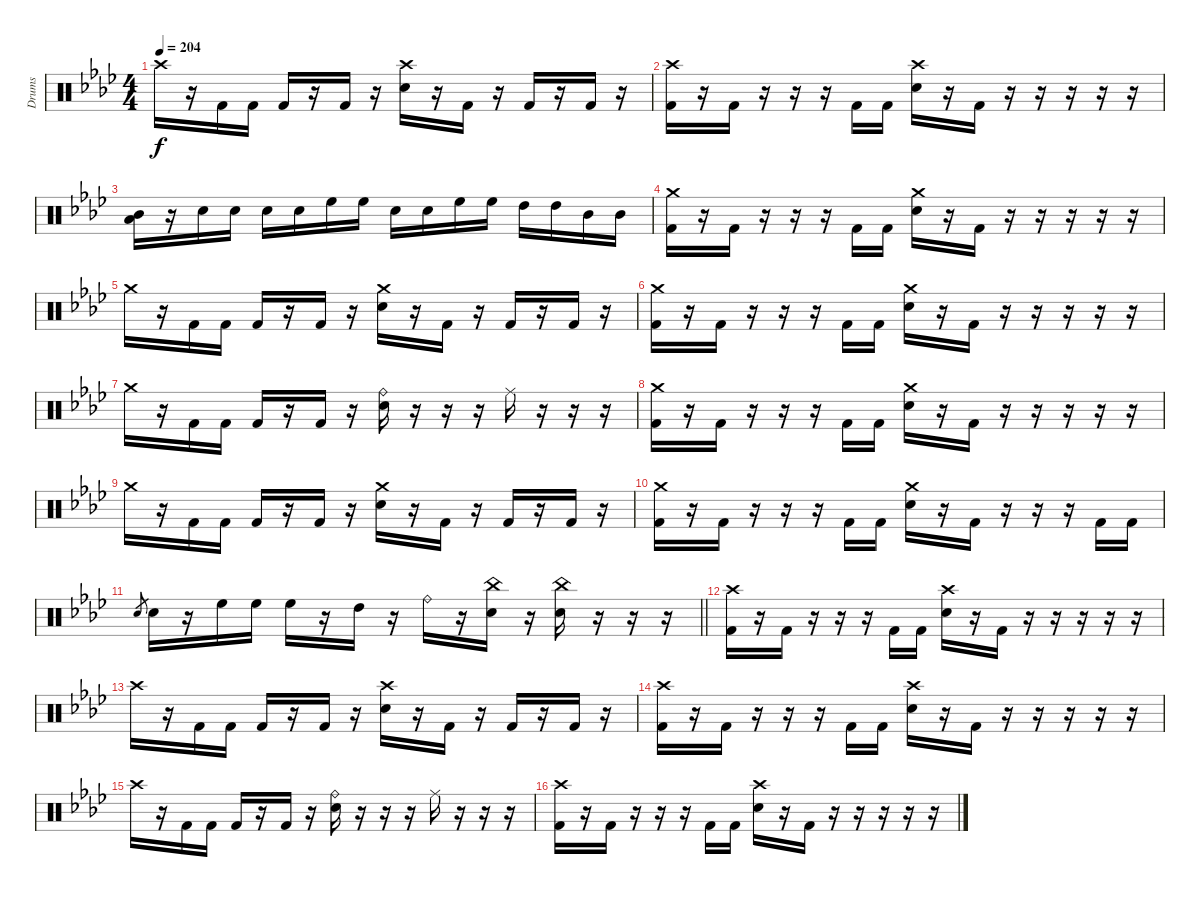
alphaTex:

\bracketExtendMode groupsimilarinstruments
\otherSystemsTrackNameOrientation horizontal
\track ("Guyot Begin-Benoit" "Drums") {instrument percussion}
\staff {score}
\articulation defaults
\ts (4 4)
\tempo 204
\clef neutral
\ks ab "Crash high (hit)"{acc forcenatural}.16{dy f beam Down}
r.16{beam Down} "Kick (hit) 2"{acc forcenatural}.16{beam Down} "Kick (hit) 2"{acc forcenatural}.16{beam Down} "Kick (hit) 2"{acc forcenatural}.16{beam Up} r.16{beam Up} "Kick (hit) 2"{acc forcenatural}.16{beam Up} r.16{beam Up} ("Crash high (hit)"{acc forcenatural} "Snare (hit) 2"{acc forcenatural}).16{beam Down} r.16{beam Down} "Kick (hit) 2"{acc forcenatural}.16{beam Down} r.16{beam Down} "Kick (hit) 2"{acc forcenatural}.16{beam Up} r.16{beam Up} "Kick (hit) 2"{acc forcenatural}.16{beam Up} r.16{beam Up} |
("Crash high (hit)"{acc forcenatural} "Kick (hit) 2"{acc forcenatural}).16{beam Down} r.16{beam Down} "Kick (hit) 2"{acc forcenatural}.16{beam Down} r.16{beam Down} r.16{beam Down} r.16{beam Down} "Kick (hit) 2"{acc forcenatural}.16{beam Up} "Kick (hit) 2"{acc forcenatural}.16{beam Up} ("Crash high (hit)"{acc forcenatural} "Snare (hit) 2"{acc forcenatural}).16{beam Down} r.16{beam Down} "Kick (hit) 2"{acc forcenatural}.16{beam Down} r.16{beam Down} r.16{beam Down} r.16{beam Down} r.16{beam Down} r.16{beam Down} |
("Low Tom (hit)"{acc forcenatural} "Mid Tom (hit)"{acc forcenatural}).16{beam Down} r.16{beam Down} "Snare (hit) 2"{acc forcenatural}.16{beam Down} "Snare (hit) 2"{acc forcenatural}.16{beam Down} "Snare (hit) 2"{acc forcenatural}.16{beam Down} "Snare (hit) 2"{acc forcenatural}.16{beam Down} "High Floor Tom (hit)"{acc forcenatural}.16{beam Down} "High Floor Tom (hit)"{acc forcenatural}.16{beam Down} "Snare (hit) 2"{acc forcenatural}.16{beam Down} "Snare (hit) 2"{acc forcenatural}.16{beam Down} "High Floor Tom (hit)"{acc forcenatural}.16{beam Down} "High Floor Tom (hit)"{acc forcenatural}.16{beam Down} "High Tom (hit)"{acc forcenatural}.16{beam Down} "High Tom (hit)"{acc forcenatural}.16{beam Down} "Mid Tom (hit)"{acc forcenatural}.16{beam Down} "Mid Tom (hit)"{acc forcenatural}.16{beam Down} |
("Crash medium (hit)"{acc forcenatural} "Kick (hit) 2"{acc forcenatural}).16{beam Down} r.16{beam Down} "Kick (hit) 2"{acc forcenatural}.16{beam Down} r.16{beam Down} r.16{beam Down} r.16{beam Down} "Kick (hit) 2"{acc forcenatural}.16{beam Up} "Kick (hit) 2"{acc forcenatural}.16{beam Up} ("Crash medium (hit)"{acc forcenatural} "Snare (hit) 2"{acc forcenatural}).16{beam Down} r.16{beam Down} "Kick (hit) 2"{acc forcenatural}.16{beam Down} r.16{beam Down} r.16{beam Down} r.16{beam Down} r.16{beam Down} r.16{beam Down} |
"Crash medium (hit)"{acc forcenatural}.16{beam Down} r.16{beam Down} "Kick (hit) 2"{acc forcenatural}.16{beam Down} "Kick (hit) 2"{acc forcenatural}.16{beam Down} "Kick (hit) 2"{acc forcenatural}.16{beam Up} r.16{beam Up} "Kick (hit) 2"{acc forcenatural}.16{beam Up} r.16{beam Up} ("Crash medium (hit)"{acc forcenatural} "Snare (hit) 2"{acc forcenatural}).16{beam Down} r.16{beam Down} "Kick (hit) 2"{acc forcenatural}.16{beam Down} r.16{beam Down} "Kick (hit) 2"{acc forcenatural}.16{beam Up} r.16{beam Up} "Kick (hit) 2"{acc forcenatural}.16{beam Up} r.16{beam Up} |
("Crash medium (hit)"{acc forcenatural} "Kick (hit) 2"{acc forcenatural}).16{beam Down} r.16{beam Down} "Kick (hit) 2"{acc forcenatural}.16{beam Down} r.16{beam Down} r.16{beam Down} r.16{beam Down} "Kick (hit) 2"{acc forcenatural}.16{beam Up} "Kick (hit) 2"{acc forcenatural}.16{beam Up} ("Crash medium (hit)"{acc forcenatural} "Snare (hit) 2"{acc forcenatural}).16{beam Down} r.16{beam Down} "Kick (hit) 2"{acc forcenatural}.16{beam Down} r.16{beam Down} r.16{beam Down} r.16{beam Down} r.16{beam Down} r.16{beam Down} |
"Crash medium (hit)"{acc forcenatural}.16{beam Down} r.16{beam Down} "Kick (hit) 2"{acc forcenatural}.16{beam Down} "Kick (hit) 2"{acc forcenatural}.16{beam Down} "Kick (hit) 2"{acc forcenatural}.16{beam Up} r.16{beam Up} "Kick (hit) 2"{acc forcenatural}.16{beam Up} r.16{beam Up} ("Ride (bell)"{acc forcenatural} "Snare (hit) 2"{acc forcenatural}).16{beam Down} r.16{beam Down} r.16{beam Down} r.16{beam Down} "Ride (middle)"{acc forcenatural}.16{beam Down} r.16{beam Down} r.16{beam Down} r.16{beam Down} |
("Crash medium (hit)"{acc forcenatural} "Kick (hit) 2"{acc forcenatural}).16{beam Down} r.16{beam Down} "Kick (hit) 2"{acc forcenatural}.16{beam Down} r.16{beam Down} r.16{beam Down} r.16{beam Down} "Kick (hit) 2"{acc forcenatural}.16{beam Up} "Kick (hit) 2"{acc forcenatural}.16{beam Up} ("Crash medium (hit)"{acc forcenatural} "Snare (hit) 2"{acc forcenatural}).16{beam Down} r.16{beam Down} "Kick (hit) 2"{acc forcenatural}.16{beam Down} r.16{beam Down} r.16{beam Down} r.16{beam Down} r.16{beam Down} r.16{beam Down} |
"Crash medium (hit)"{acc forcenatural}.16{beam Down} r.16{beam Down} "Kick (hit) 2"{acc forcenatural}.16{beam Down} "Kick (hit) 2"{acc forcenatural}.16{beam Down} "Kick (hit) 2"{acc forcenatural}.16{beam Up} r.16{beam Up} "Kick (hit) 2"{acc forcenatural}.16{beam Up} r.16{beam Up} ("Crash medium (hit)"{acc forcenatural} "Snare (hit) 2"{acc forcenatural}).16{beam Down} r.16{beam Down} "Kick (hit) 2"{acc forcenatural}.16{beam Down} r.16{beam Down} "Kick (hit) 2"{acc forcenatural}.16{beam Up} r.16{beam Up} "Kick (hit) 2"{acc forcenatural}.16{beam Up} r.16{beam Up} |
("Crash medium (hit)"{acc forcenatural} "Kick (hit) 2"{acc forcenatural}).16{beam Down} r.16{beam Down} "Kick (hit) 2"{acc forcenatural}.16{beam Down} r.16{beam Down} r.16{beam Down} r.16{beam Down} "Kick (hit) 2"{acc forcenatural}.16{beam Up} "Kick (hit) 2"{acc forcenatural}.16{beam Up} ("Crash medium (hit)"{acc forcenatural} "Snare (hit) 2"{acc forcenatural}).16{beam Down} r.16{beam Down} "Kick (hit) 2"{acc forcenatural}.16{beam Down} r.16{beam Down} r.16{beam Down} r.16{beam Down} "Kick (hit) 2"{acc forcenatural}.16{beam Up} "Kick (hit) 2"{acc forcenatural}.16{beam Up} |
\barLineRight lightlight "Snare (hit) 2"{acc forcenatural}.8{gr beam Up} "Snare (hit) 2"{acc forcenatural}.16{beam Down}
r.16{beam Down} "High Floor Tom (hit)"{acc forcenatural}.16{beam Down} "High Floor Tom (hit)"{acc forcenatural}.16{beam Down} "High Floor Tom (hit)"{acc forcenatural}.16{beam Down} r.16{beam Down} "High Tom (hit)"{acc forcenatural}.16{beam Down} r.16{beam Down} "Ride (bell)"{acc forcenatural}.16{beam Down} r.16{beam Down} ("China (hit)"{acc forcenatural} "Snare (hit) 2"{acc forcenatural}).16{beam Down} r.16{beam Down} ("China (hit)"{acc forcenatural} "Snare (hit) 2"{acc forcenatural}).16{beam Down} r.16{beam Down} r.16{beam Down} r.16{beam Down} |
\section ("" "")
("Crash high (hit)"{acc forcenatural} "Kick (hit) 2"{acc forcenatural}).16{beam Down} r.16{beam Down} "Kick (hit) 2"{acc forcenatural}.16{beam Down} r.16{beam Down} r.16{beam Down} r.16{beam Down} "Kick (hit) 2"{acc forcenatural}.16{beam Up} "Kick (hit) 2"{acc forcenatural}.16{beam Up} ("Crash high (hit)"{acc forcenatural} "Snare (hit) 2"{acc forcenatural}).16{beam Down} r.16{beam Down} "Kick (hit) 2"{acc forcenatural}.16{beam Down} r.16{beam Down} r.16{beam Down} r.16{beam Down} r.16{beam Down} r.16{beam Down} |
"Crash high (hit)"{acc forcenatural}.16{beam Down} r.16{beam Down} "Kick (hit) 2"{acc forcenatural}.16{beam Down} "Kick (hit) 2"{acc forcenatural}.16{beam Down} "Kick (hit) 2"{acc forcenatural}.16{beam Up} r.16{beam Up} "Kick (hit) 2"{acc forcenatural}.16{beam Up} r.16{beam Up} ("Crash high (hit)"{acc forcenatural} "Snare (hit) 2"{acc forcenatural}).16{beam Down} r.16{beam Down} "Kick (hit) 2"{acc forcenatural}.16{beam Down} r.16{beam Down} "Kick (hit) 2"{acc forcenatural}.16{beam Up} r.16{beam Up} "Kick (hit) 2"{acc forcenatural}.16{beam Up} r.16{beam Up} |
("Crash high (hit)"{acc forcenatural} "Kick (hit) 2"{acc forcenatural}).16{beam Down} r.16{beam Down} "Kick (hit) 2"{acc forcenatural}.16{beam Down} r.16{beam Down} r.16{beam Down} r.16{beam Down} "Kick (hit) 2"{acc forcenatural}.16{beam Up} "Kick (hit) 2"{acc forcenatural}.16{beam Up} ("Crash high (hit)"{acc forcenatural} "Snare (hit) 2"{acc forcenatural}).16{beam Down} r.16{beam Down} "Kick (hit) 2"{acc forcenatural}.16{beam Down} r.16{beam Down} r.16{beam Down} r.16{beam Down} r.16{beam Down} r.16{beam Down} |
"Crash high (hit)"{acc forcenatural}.16{beam Down} r.16{beam Down} "Kick (hit) 2"{acc forcenatural}.16{beam Down} "Kick (hit) 2"{acc forcenatural}.16{beam Down} "Kick (hit) 2"{acc forcenatural}.16{beam Up} r.16{beam Up} "Kick (hit) 2"{acc forcenatural}.16{beam Up} r.16{beam Up} ("Ride (bell)"{acc forcenatural} "Snare (hit) 2"{acc forcenatural}).16{beam Down} r.16{beam Down} r.16{beam Down} r.16{beam Down} "Ride (middle)"{acc forcenatural}.16{beam Down} r.16{beam Down} r.16{beam Down} r.16{beam Down} |
("Crash high (hit)"{acc forcenatural} "Kick (hit) 2"{acc forcenatural}).16{beam Down} r.16{beam Down} "Kick (hit) 2"{acc forcenatural}.16{beam Down} r.16{beam Down} r.16{beam Down} r.16{beam Down} "Kick (hit) 2"{acc forcenatural}.16{beam Up} "Kick (hit) 2"{acc forcenatural}.16{beam Up} ("Crash high (hit)"{acc forcenatural} "Snare (hit) 2"{acc forcenatural}).16{beam Down} r.16{beam Down} "Kick (hit) 2"{acc forcenatural}.16{beam Down} r.16{beam Down} r.16{beam Down} r.16{beam Down} r.16{beam Down} r.16{beam Down}
